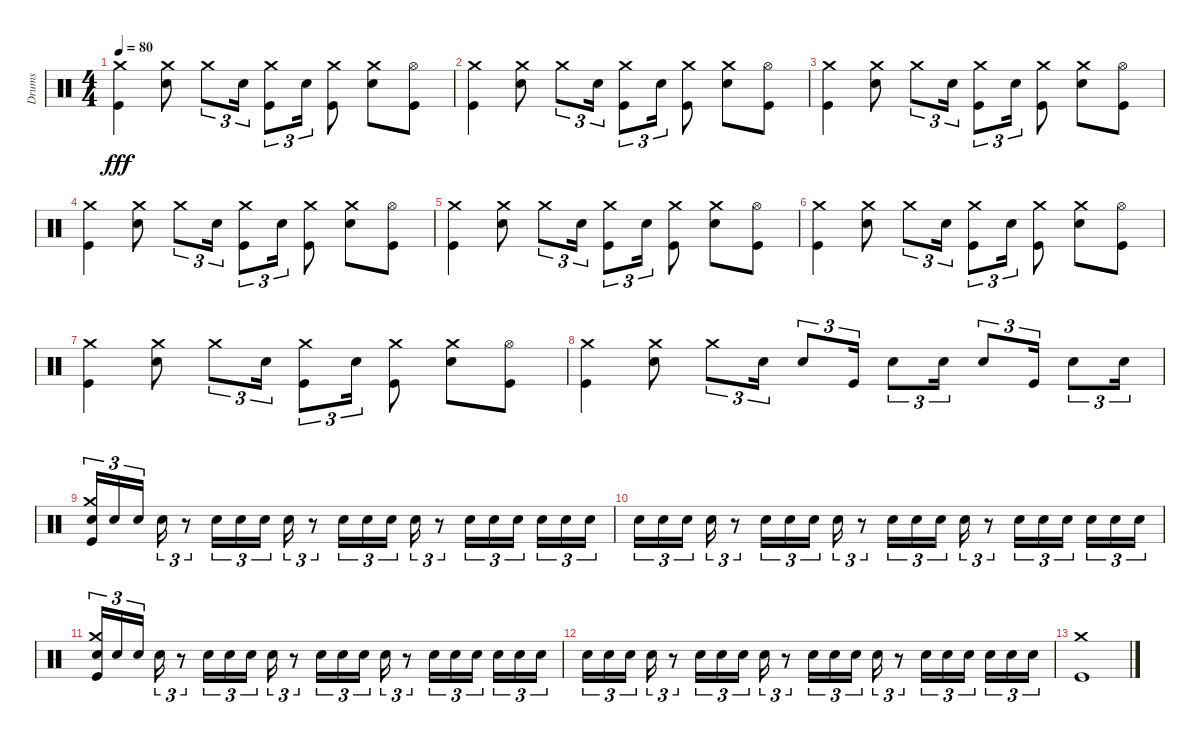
\track ("Drums" "Drums") {instrument percussion}
\staff {score}
\articulation defaults
\ts (4 4)
\tempo 80
\clef neutral
\ks c
("Kick (hit)" "Crash medium (hit)").4{dy fff} ("Snare (hit) 2" "Crash medium (hit)").8 "Crash medium (hit)".8{tu (3 2)} "Snare (hit) 2".16{tu (3 2)} ("Kick (hit)" "Crash medium (hit)").8{tu (3 2)} "Snare (hit) 2".16{tu (3 2)} ("Kick (hit)" "Crash medium (hit)").8 ("Snare (hit) 2" "Crash medium (hit)").8 ("Kick (hit)" "Hi-Hat (open)").8 |
("Kick (hit)" "Crash medium (hit)").4 ("Snare (hit) 2" "Crash medium (hit)").8 "Crash medium (hit)".8{tu (3 2)} "Snare (hit) 2".16{tu (3 2)} ("Kick (hit)" "Crash medium (hit)").8{tu (3 2)} "Snare (hit) 2".16{tu (3 2)} ("Kick (hit)" "Crash medium (hit)").8 ("Snare (hit) 2" "Crash medium (hit)").8 ("Kick (hit)" "Hi-Hat (open)").8 |
("Kick (hit)" "Crash medium (hit)").4 ("Snare (hit) 2" "Crash medium (hit)").8 "Crash medium (hit)".8{tu (3 2)} "Snare (hit) 2".16{tu (3 2)} ("Kick (hit)" "Crash medium (hit)").8{tu (3 2)} "Snare (hit) 2".16{tu (3 2)} ("Kick (hit)" "Crash medium (hit)").8 ("Snare (hit) 2" "Crash medium (hit)").8 ("Kick (hit)" "Hi-Hat (open)").8 |
("Kick (hit)" "Crash medium (hit)").4 ("Snare (hit) 2" "Crash medium (hit)").8 "Crash medium (hit)".8{tu (3 2)} "Snare (hit) 2".16{tu (3 2)} ("Kick (hit)" "Crash medium (hit)").8{tu (3 2)} "Snare (hit) 2".16{tu (3 2)} ("Kick (hit)" "Crash medium (hit)").8 ("Snare (hit) 2" "Crash medium (hit)").8 ("Kick (hit)" "Hi-Hat (open)").8 |
("Kick (hit)" "Crash medium (hit)").4 ("Snare (hit) 2" "Crash medium (hit)").8 "Crash medium (hit)".8{tu (3 2)} "Snare (hit) 2".16{tu (3 2)} ("Kick (hit)" "Crash medium (hit)").8{tu (3 2)} "Snare (hit) 2".16{tu (3 2)} ("Kick (hit)" "Crash medium (hit)").8 ("Snare (hit) 2" "Crash medium (hit)").8 ("Kick (hit)" "Hi-Hat (open)").8 |
("Kick (hit)" "Crash medium (hit)").4 ("Snare (hit) 2" "Crash medium (hit)").8 "Crash medium (hit)".8{tu (3 2)} "Snare (hit) 2".16{tu (3 2)} ("Kick (hit)" "Crash medium (hit)").8{tu (3 2)} "Snare (hit) 2".16{tu (3 2)} ("Kick (hit)" "Crash medium (hit)").8 ("Snare (hit) 2" "Crash medium (hit)").8 ("Kick (hit)" "Hi-Hat (open)").8 |
("Kick (hit)" "Crash medium (hit)").4 ("Snare (hit) 2" "Crash medium (hit)").8 "Crash medium (hit)".8{tu (3 2)} "Snare (hit) 2".16{tu (3 2)} ("Kick (hit)" "Crash medium (hit)").8{tu (3 2)} "Snare (hit) 2".16{tu (3 2)} ("Kick (hit)" "Crash medium (hit)").8 ("Snare (hit) 2" "Crash medium (hit)").8 ("Kick (hit)" "Hi-Hat (open)").8 |
("Kick (hit)" "Crash medium (hit)").4 ("Snare (hit) 2" "Crash medium (hit)").8 "Crash medium (hit)".8{tu (3 2)} "Snare (hit) 2".16{tu (3 2)} "Snare (hit) 2".8{tu (3 2)} "Kick (hit)".16{tu (3 2)} "Snare (hit) 2".8{tu (3 2)} "Snare (hit) 2".16{tu (3 2)} "Snare (hit) 2".8{tu (3 2)} "Kick (hit)".16{tu (3 2)} "Snare (hit) 2".8{tu (3 2)} "Snare (hit) 2".16{tu (3 2)} |
("Snare (hit) 2" "Crash medium (hit)" "Kick (hit)").16{tu (3 2)} "Snare (hit) 2".16{tu (3 2)} "Snare (hit) 2".16{tu (3 2)} "Snare (hit) 2".16{tu (3 2)} r.8{tu (3 2)} "Snare (hit) 2".16{tu (3 2)} "Snare (hit) 2".16{tu (3 2)} "Snare (hit) 2".16{tu (3 2)} "Snare (hit) 2".16{tu (3 2)} r.8{tu (3 2)} "Snare (hit) 2".16{tu (3 2)} "Snare (hit) 2".16{tu (3 2)} "Snare (hit) 2".16{tu (3 2)} "Snare (hit) 2".16{tu (3 2)} r.8{tu (3 2)} "Snare (hit) 2".16{tu (3 2)} "Snare (hit) 2".16{tu (3 2)} "Snare (hit) 2".16{tu (3 2)} "Snare (hit) 2".16{tu (3 2)} "Snare (hit) 2".16{tu (3 2)} "Snare (hit) 2".16{tu (3 2)} |
"Snare (hit) 2".16{tu (3 2)} "Snare (hit) 2".16{tu (3 2)} "Snare (hit) 2".16{tu (3 2)} "Snare (hit) 2".16{tu (3 2)} r.8{tu (3 2)} "Snare (hit) 2".16{tu (3 2)} "Snare (hit) 2".16{tu (3 2)} "Snare (hit) 2".16{tu (3 2)} "Snare (hit) 2".16{tu (3 2)} r.8{tu (3 2)} "Snare (hit) 2".16{tu (3 2)} "Snare (hit) 2".16{tu (3 2)} "Snare (hit) 2".16{tu (3 2)} "Snare (hit) 2".16{tu (3 2)} r.8{tu (3 2)} "Snare (hit) 2".16{tu (3 2)} "Snare (hit) 2".16{tu (3 2)} "Snare (hit) 2".16{tu (3 2)} "Snare (hit) 2".16{tu (3 2)} "Snare (hit) 2".16{tu (3 2)} "Snare (hit) 2".16{tu (3 2)} |
("Snare (hit) 2" "Kick (hit)" "Crash medium (hit)").16{tu (3 2)} "Snare (hit) 2".16{tu (3 2)} "Snare (hit) 2".16{tu (3 2)} "Snare (hit) 2".16{tu (3 2)} r.8{tu (3 2)} "Snare (hit) 2".16{tu (3 2)} "Snare (hit) 2".16{tu (3 2)} "Snare (hit) 2".16{tu (3 2)} "Snare (hit) 2".16{tu (3 2)} r.8{tu (3 2)} "Snare (hit) 2".16{tu (3 2)} "Snare (hit) 2".16{tu (3 2)} "Snare (hit) 2".16{tu (3 2)} "Snare (hit) 2".16{tu (3 2)} r.8{tu (3 2)} "Snare (hit) 2".16{tu (3 2)} "Snare (hit) 2".16{tu (3 2)} "Snare (hit) 2".16{tu (3 2)} "Snare (hit) 2".16{tu (3 2)} "Snare (hit) 2".16{tu (3 2)} "Snare (hit) 2".16{tu (3 2)} |
"Snare (hit) 2".16{tu (3 2)} "Snare (hit) 2".16{tu (3 2)} "Snare (hit) 2".16{tu (3 2)} "Snare (hit) 2".16{tu (3 2)} r.8{tu (3 2)} "Snare (hit) 2".16{tu (3 2)} "Snare (hit) 2".16{tu (3 2)} "Snare (hit) 2".16{tu (3 2)} "Snare (hit) 2".16{tu (3 2)} r.8{tu (3 2)} "Snare (hit) 2".16{tu (3 2)} "Snare (hit) 2".16{tu (3 2)} "Snare (hit) 2".16{tu (3 2)} "Snare (hit) 2".16{tu (3 2)} r.8{tu (3 2)} "Snare (hit) 2".16{tu (3 2)} "Snare (hit) 2".16{tu (3 2)} "Snare (hit) 2".16{tu (3 2)} "Snare (hit) 2".16{tu (3 2)} "Snare (hit) 2".16{tu (3 2)} "Snare (hit) 2".16{tu (3 2)} |
("Kick (hit)" "Crash medium (hit)").1
